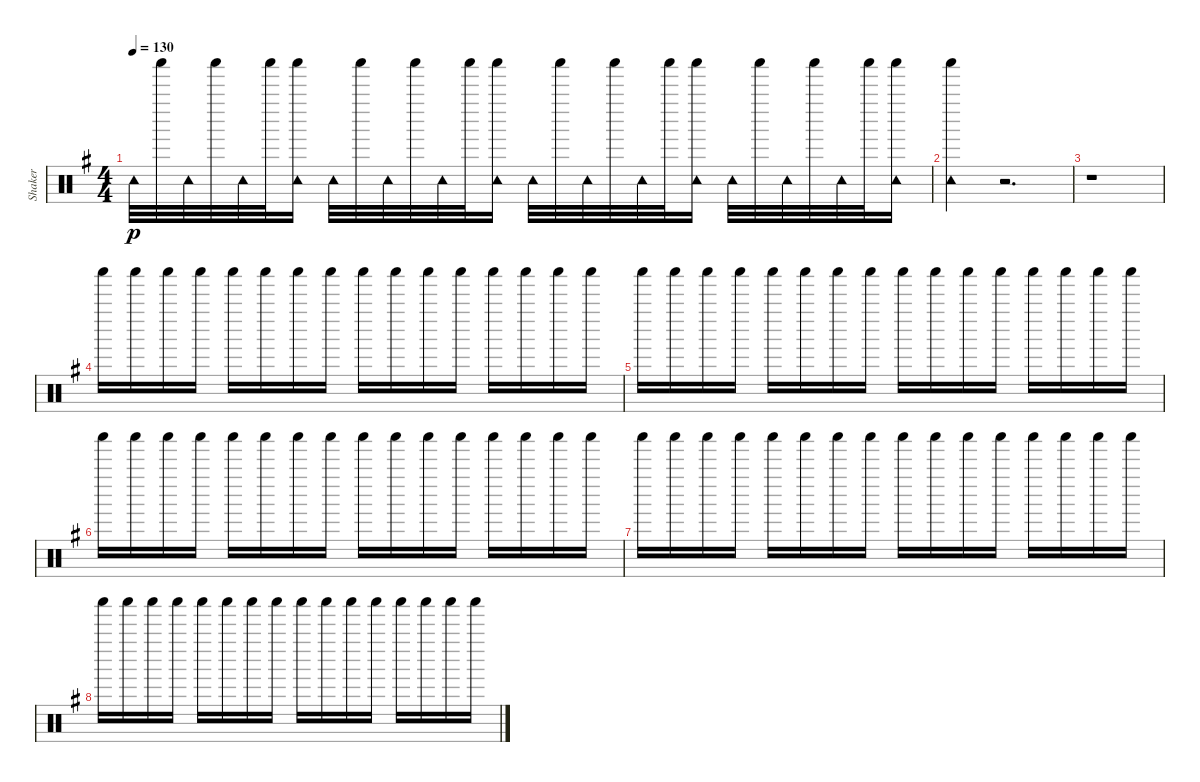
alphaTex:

\track ("Shaker" "Shaker") {instrument percussion}
\staff {score}
\articulation defaults
\ts (4 4)
\tempo 130
\clef neutral
\ks g "Tambourine (hit)".32{dy p} "Shaker (hit)".32 "Tambourine (hit)".32 "Shaker (hit)".32 "Tambourine (hit)".32 "Shaker (hit)".32
("Tambourine (hit)" "Shaker (hit)").16 "Tambourine (hit)".32 "Shaker (hit)".32 "Tambourine (hit)".32 "Shaker (hit)".32 "Tambourine (hit)".32 "Shaker (hit)".32 ("Tambourine (hit)" "Shaker (hit)").16 "Tambourine (hit)".32 "Shaker (hit)".32 "Tambourine (hit)".32 "Shaker (hit)".32 "Tambourine (hit)".32 "Shaker (hit)".32 ("Tambourine (hit)" "Shaker (hit)").16 "Tambourine (hit)".32 "Shaker (hit)".32 "Tambourine (hit)".32 "Shaker (hit)".32 "Tambourine (hit)".32 "Shaker (hit)".32 ("Tambourine (hit)" "Shaker (hit)").16 |
("Shaker (hit)" "Tambourine (hit)").4 r.2{d} |
r.1 |
"Shaker (hit)".16 "Shaker (hit)".16 "Shaker (hit)".16 "Shaker (hit)".16 "Shaker (hit)".16 "Shaker (hit)".16 "Shaker (hit)".16 "Shaker (hit)".16 "Shaker (hit)".16 "Shaker (hit)".16 "Shaker (hit)".16 "Shaker (hit)".16 "Shaker (hit)".16 "Shaker (hit)".16 "Shaker (hit)".16 "Shaker (hit)".16 |
"Shaker (hit)".16 "Shaker (hit)".16 "Shaker (hit)".16 "Shaker (hit)".16 "Shaker (hit)".16 "Shaker (hit)".16 "Shaker (hit)".16 "Shaker (hit)".16 "Shaker (hit)".16 "Shaker (hit)".16 "Shaker (hit)".16 "Shaker (hit)".16 "Shaker (hit)".16 "Shaker (hit)".16 "Shaker (hit)".16 "Shaker (hit)".16 |
"Shaker (hit)".16 "Shaker (hit)".16 "Shaker (hit)".16 "Shaker (hit)".16 "Shaker (hit)".16 "Shaker (hit)".16 "Shaker (hit)".16 "Shaker (hit)".16 "Shaker (hit)".16 "Shaker (hit)".16 "Shaker (hit)".16 "Shaker (hit)".16 "Shaker (hit)".16 "Shaker (hit)".16 "Shaker (hit)".16 "Shaker (hit)".16 |
"Shaker (hit)".16 "Shaker (hit)".16 "Shaker (hit)".16 "Shaker (hit)".16 "Shaker (hit)".16 "Shaker (hit)".16 "Shaker (hit)".16 "Shaker (hit)".16 "Shaker (hit)".16 "Shaker (hit)".16 "Shaker (hit)".16 "Shaker (hit)".16 "Shaker (hit)".16 "Shaker (hit)".16 "Shaker (hit)".16 "Shaker (hit)".16 |
"Shaker (hit)".16 "Shaker (hit)".16 "Shaker (hit)".16 "Shaker (hit)".16 "Shaker (hit)".16 "Shaker (hit)".16 "Shaker (hit)".16 "Shaker (hit)".16 "Shaker (hit)".16 "Shaker (hit)".16 "Shaker (hit)".16 "Shaker (hit)".16 "Shaker (hit)".16 "Shaker (hit)".16 "Shaker (hit)".16 "Shaker (hit)".16
